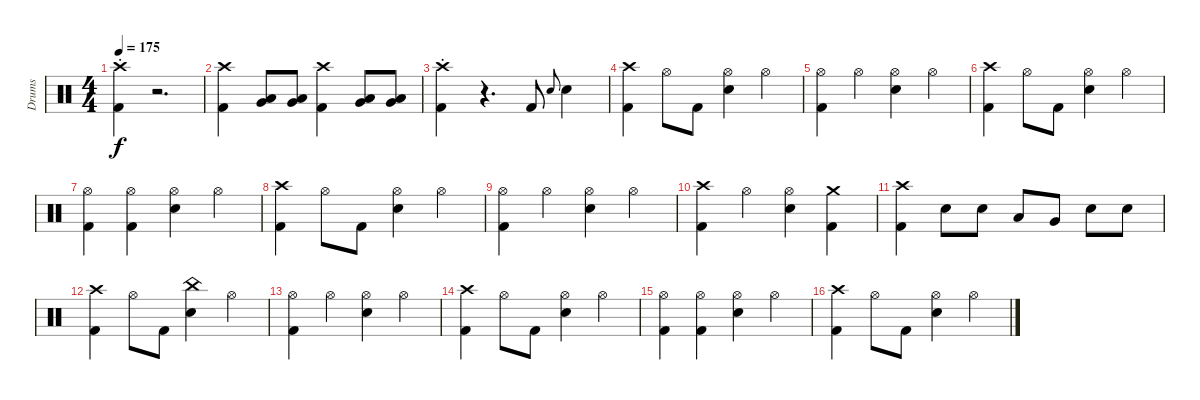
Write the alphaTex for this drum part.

\track ("Drums" "Drums") {instrument percussion}
\staff {score}
\articulation defaults
\ts (4 4)
\tempo 175
\clef neutral
\ks c
("Crash high (hit)"{st} "Kick (hit) 2"{st}).4{dy f} r.2{d} |
("Crash high (hit)" "Kick (hit) 2").4 ("Very Low Tom (hit)" "Low Floor Tom (hit)").8 ("Very Low Tom (hit)" "Low Floor Tom (hit)").8 ("Crash high (hit)" "Kick (hit) 2").4 ("Very Low Tom (hit)" "Low Floor Tom (hit)").8 ("Very Low Tom (hit)" "Low Floor Tom (hit)").8 |
("Crash high (hit)"{st} "Kick (hit) 2"{st}).4 r.4{d} "Kick (hit) 2".8 "Snare (hit) 2"{h}.8{gr onbeat} "Snare (hit) 2".4 |
("Crash high (hit)" "Kick (hit) 2").4 "Hi-Hat (open)".8 "Kick (hit) 2".8 ("Hi-Hat (open)" "Snare (hit) 2").4 "Hi-Hat (open)".4 |
("Hi-Hat (open)" "Kick (hit) 2").4 "Hi-Hat (open)".4 ("Hi-Hat (open)" "Snare (hit) 2").4 "Hi-Hat (open)".4 |
("Crash high (hit)" "Kick (hit) 2").4 "Hi-Hat (open)".8 "Kick (hit) 2".8 ("Hi-Hat (open)" "Snare (hit) 2").4 "Hi-Hat (open)".4 |
("Hi-Hat (open)" "Kick (hit) 2").4 ("Hi-Hat (open)" "Kick (hit) 2").4 ("Hi-Hat (open)" "Snare (hit) 2").4 "Hi-Hat (open)".4 |
("Crash high (hit)" "Kick (hit) 2").4 "Hi-Hat (open)".8 "Kick (hit) 2".8 ("Hi-Hat (open)" "Snare (hit) 2").4 "Hi-Hat (open)".4 |
("Hi-Hat (open)" "Kick (hit) 2").4 "Hi-Hat (open)".4 ("Hi-Hat (open)" "Snare (hit) 2").4 "Hi-Hat (open)".4 |
("Crash high (hit)" "Kick (hit) 2").4 "Hi-Hat (open)".4 ("Hi-Hat (open)" "Snare (hit) 2").4 ("Crash medium (hit)" "Kick (hit) 2").4 |
("Crash high (hit)" "Kick (hit) 2").4 "Snare (hit) 2".8 "Snare (hit) 2".8 "Low Tom (hit)".8 "Very Low Tom (hit)".8 "Snare (hit) 2".8 "Snare (hit) 2".8 |
("Crash high (hit)" "Kick (hit) 2").4 "Hi-Hat (open)".8 "Kick (hit) 2".8 ("China (hit)" "Snare (hit) 2").4 "Hi-Hat (open)".4 |
("Hi-Hat (open)" "Kick (hit) 2").4 "Hi-Hat (open)".4 ("Hi-Hat (open)" "Snare (hit) 2").4 "Hi-Hat (open)".4 |
("Crash high (hit)" "Kick (hit) 2").4 "Hi-Hat (open)".8 "Kick (hit) 2".8 ("Hi-Hat (open)" "Snare (hit) 2").4 "Hi-Hat (open)".4 |
("Hi-Hat (open)" "Kick (hit) 2").4 ("Hi-Hat (open)" "Kick (hit) 2").4 ("Hi-Hat (open)" "Snare (hit) 2").4 "Hi-Hat (open)".4 |
("Crash high (hit)" "Kick (hit) 2").4 "Hi-Hat (open)".8 "Kick (hit) 2".8 ("Hi-Hat (open)" "Snare (hit) 2").4 "Hi-Hat (open)".4
